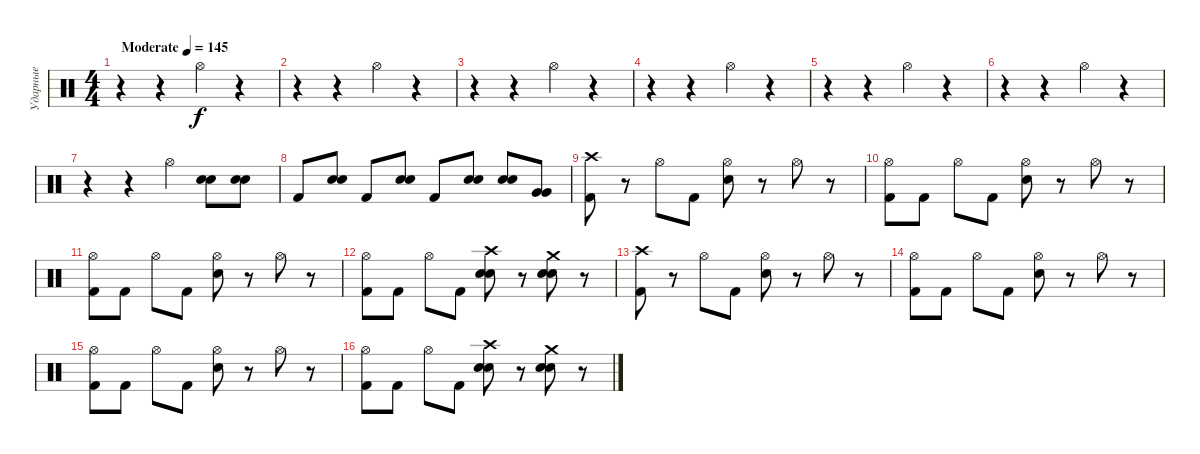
\track ("Ударные" "Ударные") {instrument percussion}
\staff {score}
\articulation defaults
\ts (4 4)
\tempo (145 "Moderate")
\clef neutral
\ks c
r.4{dy f} r.4 "Hi-Hat (open)".4 r.4 |
r.4 r.4 "Hi-Hat (open)".4 r.4 |
r.4 r.4 "Hi-Hat (open)".4 r.4 |
r.4 r.4 "Hi-Hat (open)".4 r.4 |
r.4 r.4 "Hi-Hat (open)".4 r.4 |
r.4 r.4 "Hi-Hat (open)".4 r.4 |
r.4 r.4 "Hi-Hat (open)".4 ("Snare (hit) 2" "Snare (hit) 2").8 ("Snare (hit) 2" "Snare (hit) 2").8 |
"Kick (hit) 2".8 ("Snare (hit) 2" "Snare (hit) 2").8 "Kick (hit) 2".8 ("Snare (hit) 2" "Snare (hit) 2").8 "Kick (hit) 2".8 ("Snare (hit) 2" "Snare (hit) 2").8 ("Snare (hit) 2" "Snare (hit) 2").8 ("Very Low Tom (hit)" "Very Low Tom (hit)").8 |
("Crash high (hit)" "Kick (hit) 2").8 r.8 "Hi-Hat (open)".8 "Kick (hit) 2".8 ("Hi-Hat (open)" "Snare (hit) 2").8 r.8 "Hi-Hat (open)".8 r.8 |
("Hi-Hat (open)" "Kick (hit) 2").8 "Kick (hit) 2".8 "Hi-Hat (open)".8 "Kick (hit) 2".8 ("Hi-Hat (open)" "Snare (hit) 2").8 r.8 "Hi-Hat (open)".8 r.8 |
("Hi-Hat (open)" "Kick (hit) 2").8 "Kick (hit) 2".8 "Hi-Hat (open)".8 "Kick (hit) 2".8 ("Hi-Hat (open)" "Snare (hit) 2").8 r.8 "Hi-Hat (open)".8 r.8 |
("Hi-Hat (open)" "Kick (hit) 2").8 "Kick (hit) 2".8 "Hi-Hat (open)".8 "Kick (hit) 2".8 ("Crash high (hit)" "Snare (hit) 2" "Snare (hit) 2").8 r.8 ("Crash medium (hit)" "Snare (hit) 2" "Snare (hit) 2").8 r.8 |
("Crash high (hit)" "Kick (hit) 2").8 r.8 "Hi-Hat (open)".8 "Kick (hit) 2".8 ("Hi-Hat (open)" "Snare (hit) 2").8 r.8 "Hi-Hat (open)".8 r.8 |
("Hi-Hat (open)" "Kick (hit) 2").8 "Kick (hit) 2".8 "Hi-Hat (open)".8 "Kick (hit) 2".8 ("Hi-Hat (open)" "Snare (hit) 2").8 r.8 "Hi-Hat (open)".8 r.8 |
("Hi-Hat (open)" "Kick (hit) 2").8 "Kick (hit) 2".8 "Hi-Hat (open)".8 "Kick (hit) 2".8 ("Hi-Hat (open)" "Snare (hit) 2").8 r.8 "Hi-Hat (open)".8 r.8 |
("Hi-Hat (open)" "Kick (hit) 2").8 "Kick (hit) 2".8 "Hi-Hat (open)".8 "Kick (hit) 2".8 ("Crash high (hit)" "Snare (hit) 2" "Snare (hit) 2").8 r.8 ("Crash medium (hit)" "Snare (hit) 2" "Snare (hit) 2").8 r.8
